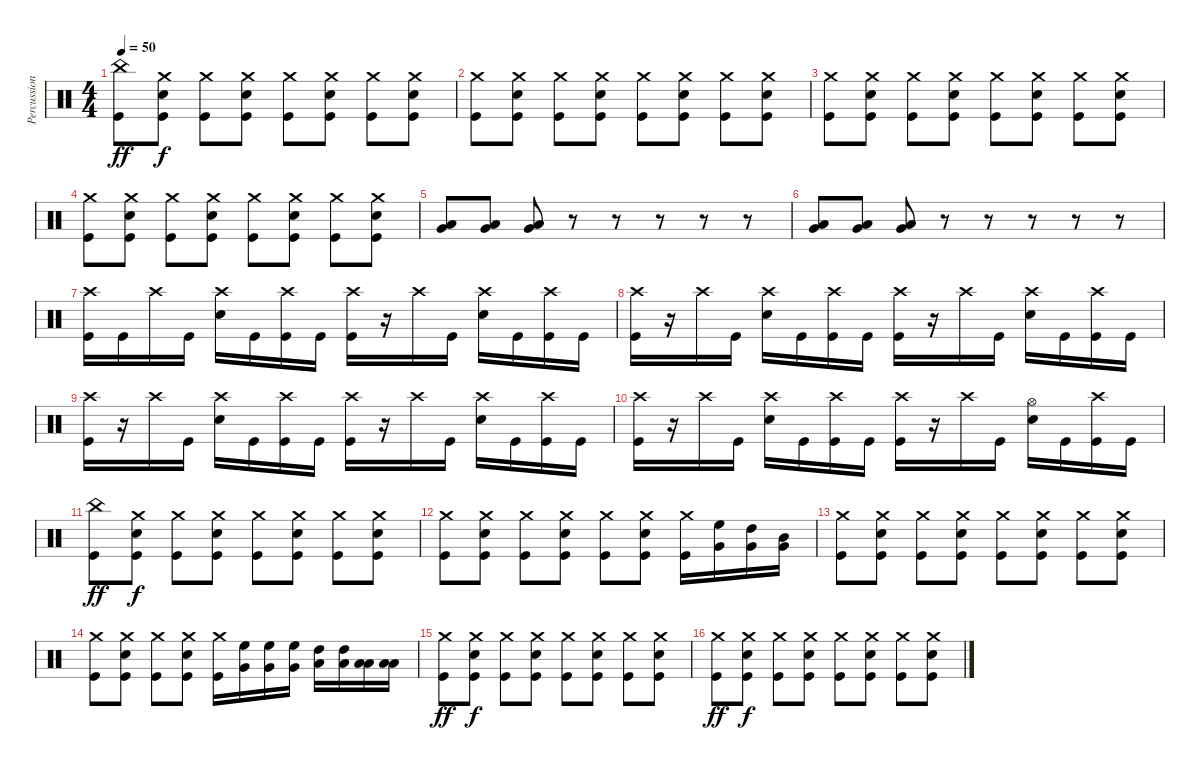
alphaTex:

\track ("Percussion" "Percussion") {instrument percussion}
\staff {score}
\articulation defaults
\ts (4 4)
\tempo 50
\clef neutral
\ks c
("China (hit)" "Kick (hit)").8{dy ff} ("Crash medium (hit)" "Snare (hit) 2" "Kick (hit)").8{dy f} ("Crash medium (hit)" "Kick (hit)").8 ("Crash medium (hit)" "Snare (hit) 2" "Kick (hit)").8 ("Crash medium (hit)" "Kick (hit)").8 ("Crash medium (hit)" "Snare (hit) 2" "Kick (hit)").8 ("Crash medium (hit)" "Kick (hit)").8 ("Crash medium (hit)" "Snare (hit) 2" "Kick (hit)").8 |
("Crash medium (hit)" "Kick (hit)").8 ("Crash medium (hit)" "Snare (hit) 2" "Kick (hit)").8 ("Crash medium (hit)" "Kick (hit)").8 ("Crash medium (hit)" "Snare (hit) 2" "Kick (hit)").8 ("Crash medium (hit)" "Kick (hit)").8 ("Crash medium (hit)" "Snare (hit) 2" "Kick (hit)").8 ("Crash medium (hit)" "Kick (hit)").8 ("Crash medium (hit)" "Snare (hit) 2" "Kick (hit)").8 |
("Crash medium (hit)" "Kick (hit)").8 ("Crash medium (hit)" "Snare (hit) 2" "Kick (hit)").8 ("Crash medium (hit)" "Kick (hit)").8 ("Crash medium (hit)" "Snare (hit) 2" "Kick (hit)").8 ("Crash medium (hit)" "Kick (hit)").8 ("Crash medium (hit)" "Snare (hit) 2" "Kick (hit)").8 ("Crash medium (hit)" "Kick (hit)").8 ("Crash medium (hit)" "Snare (hit) 2" "Kick (hit)").8 |
("Crash medium (hit)" "Kick (hit)").8 ("Crash medium (hit)" "Snare (hit) 2" "Kick (hit)").8 ("Crash medium (hit)" "Kick (hit)").8 ("Crash medium (hit)" "Snare (hit) 2" "Kick (hit)").8 ("Crash medium (hit)" "Kick (hit)").8 ("Crash medium (hit)" "Snare (hit) 2" "Kick (hit)").8 ("Crash medium (hit)" "Kick (hit)").8 ("Crash medium (hit)" "Snare (hit) 2" "Kick (hit)").8 |
("Low Floor Tom (hit)" "Very Low Tom (hit)").8{bd 60} ("Low Floor Tom (hit)" "Very Low Tom (hit)").8{bd 60} ("Low Floor Tom (hit)" "Very Low Tom (hit)").8{bd 60} r.8 r.8 r.8 r.8 r.8 |
("Low Floor Tom (hit)" "Very Low Tom (hit)").8{bd 60} ("Low Floor Tom (hit)" "Very Low Tom (hit)").8{bd 60} ("Low Floor Tom (hit)" "Very Low Tom (hit)").8{bd 60} r.8 r.8 r.8 r.8 r.8 |
("Crash high (hit)" "Kick (hit)").16 "Kick (hit)".16 "Crash high (hit)".16 "Kick (hit)".16 ("Crash high (hit)" "Snare (hit) 2").16 "Kick (hit)".16 ("Crash high (hit)" "Kick (hit)").16 "Kick (hit)".16 ("Crash high (hit)" "Kick (hit)").16 r.16 "Crash high (hit)".16 "Kick (hit)".16 ("Crash high (hit)" "Snare (hit) 2").16 "Kick (hit)".16 ("Crash high (hit)" "Kick (hit)").16 "Kick (hit)".16 |
("Crash high (hit)" "Kick (hit)").16 r.16 "Crash high (hit)".16 "Kick (hit)".16 ("Crash high (hit)" "Snare (hit) 2").16 "Kick (hit)".16 ("Crash high (hit)" "Kick (hit)").16 "Kick (hit)".16 ("Crash high (hit)" "Kick (hit)").16 r.16 "Crash high (hit)".16 "Kick (hit)".16 ("Crash high (hit)" "Snare (hit) 2").16 "Kick (hit)".16 ("Crash high (hit)" "Kick (hit)").16 "Kick (hit)".16 |
("Crash high (hit)" "Kick (hit)").16 r.16 "Crash high (hit)".16 "Kick (hit)".16 ("Crash high (hit)" "Snare (hit) 2").16 "Kick (hit)".16 ("Crash high (hit)" "Kick (hit)").16 "Kick (hit)".16 ("Crash high (hit)" "Kick (hit)").16 r.16 "Crash high (hit)".16 "Kick (hit)".16 ("Crash high (hit)" "Snare (hit) 2").16 "Kick (hit)".16 ("Crash high (hit)" "Kick (hit)").16 "Kick (hit)".16 |
("Crash high (hit)" "Kick (hit)").16 r.16 "Crash high (hit)".16 "Kick (hit)".16 ("Crash high (hit)" "Snare (hit) 2").16 "Kick (hit)".16 ("Crash high (hit)" "Kick (hit)").16 "Kick (hit)".16 ("Crash high (hit)" "Kick (hit)").16 r.16 "Crash high (hit)".16 "Kick (hit)".16 ("Hi-Hat (open)" "Snare (hit) 2").16 "Kick (hit)".16 ("Crash high (hit)" "Kick (hit)").16 "Kick (hit)".16 |
("China (hit)" "Kick (hit)").8{dy ff} ("Crash medium (hit)" "Snare (hit) 2" "Kick (hit)").8{dy f} ("Crash medium (hit)" "Kick (hit)").8 ("Crash medium (hit)" "Snare (hit) 2" "Kick (hit)").8 ("Crash medium (hit)" "Kick (hit)").8 ("Crash medium (hit)" "Snare (hit) 2" "Kick (hit)").8 ("Crash medium (hit)" "Kick (hit)").8 ("Crash medium (hit)" "Snare (hit) 2" "Kick (hit)").8 |
("Crash medium (hit)" "Kick (hit)").8 ("Crash medium (hit)" "Snare (hit) 2" "Kick (hit)").8 ("Crash medium (hit)" "Kick (hit)").8 ("Crash medium (hit)" "Snare (hit) 2" "Kick (hit)").8 ("Crash medium (hit)" "Kick (hit)").8 ("Crash medium (hit)" "Snare (hit) 2" "Kick (hit)").8 ("Crash medium (hit)" "Kick (hit)").16 ("High Floor Tom (hit)" "Very Low Tom (hit)").16 ("High Tom (hit)" "Very Low Tom (hit)").16 ("Mid Tom (hit)" "Very Low Tom (hit)").16 |
("Crash medium (hit)" "Kick (hit)").8 ("Crash medium (hit)" "Snare (hit) 2" "Kick (hit)").8 ("Crash medium (hit)" "Kick (hit)").8 ("Crash medium (hit)" "Snare (hit) 2" "Kick (hit)").8 ("Crash medium (hit)" "Kick (hit)").8 ("Crash medium (hit)" "Snare (hit) 2" "Kick (hit)").8 ("Crash medium (hit)" "Kick (hit)").8 ("Crash medium (hit)" "Snare (hit) 2" "Kick (hit)").8 |
("Crash medium (hit)" "Kick (hit)").8 ("Crash medium (hit)" "Snare (hit) 2" "Kick (hit)").8 ("Crash medium (hit)" "Kick (hit)").8 ("Crash medium (hit)" "Snare (hit) 2" "Kick (hit)").8 ("Crash medium (hit)" "Kick (hit)").16 ("High Floor Tom (hit)" "Very Low Tom (hit)").16 ("High Floor Tom (hit)" "Very Low Tom (hit)").16 ("High Floor Tom (hit)" "Very Low Tom (hit)").16 ("High Tom (hit)" "Low Floor Tom (hit)").16 ("High Tom (hit)" "Low Floor Tom (hit)").16 ("Low Tom (hit)" "Low Floor Tom (hit)").16 ("Low Tom (hit)" "Low Floor Tom (hit)").16 |
("Crash medium (hit)" "Kick (hit)").8{dy ff} ("Crash medium (hit)" "Snare (hit) 2" "Kick (hit)").8{dy f} ("Crash medium (hit)" "Kick (hit)").8 ("Crash medium (hit)" "Snare (hit) 2" "Kick (hit)").8 ("Crash medium (hit)" "Kick (hit)").8 ("Crash medium (hit)" "Snare (hit) 2" "Kick (hit)").8 ("Crash medium (hit)" "Kick (hit)").8 ("Crash medium (hit)" "Snare (hit) 2" "Kick (hit)").8 |
("Crash medium (hit)" "Kick (hit)").8{dy ff} ("Crash medium (hit)" "Snare (hit) 2" "Kick (hit)").8{dy f} ("Crash medium (hit)" "Kick (hit)").8 ("Crash medium (hit)" "Snare (hit) 2" "Kick (hit)").8 ("Crash medium (hit)" "Kick (hit)").8 ("Crash medium (hit)" "Snare (hit) 2" "Kick (hit)").8 ("Crash medium (hit)" "Kick (hit)").8 ("Crash medium (hit)" "Snare (hit) 2" "Kick (hit)").8
